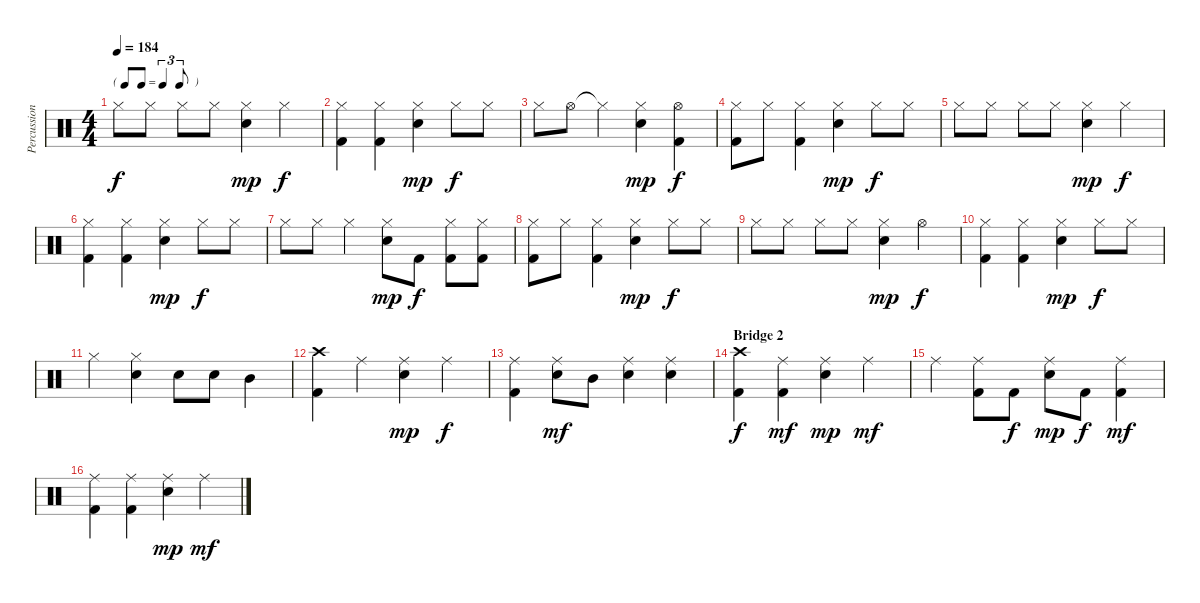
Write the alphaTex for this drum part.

\track ("Percussion" "Percussion") {instrument percussion}
\staff {score}
\articulation defaults
\ts (4 4)
\tf triplet8th
\tempo 184
\clef neutral
\ks c "Hi-Hat (closed)".8{dy f} "Hi-Hat (closed)".8 "Hi-Hat (closed)".8 "Hi-Hat (closed)".8
("Hi-Hat (closed)" "Electric Snare (hit)").4{dy mp} "Hi-Hat (closed)".4{dy f} |
("Hi-Hat (closed)" "Kick (hit) 2").4 ("Hi-Hat (closed)" "Kick (hit) 2").4 ("Hi-Hat (closed)" "Electric Snare (hit)").4{dy mp} "Hi-Hat (closed)".8{dy f} "Hi-Hat (closed)".8 |
"Hi-Hat (closed)".8 "Hi-Hat (open)".8 "Hi-Hat (closed)"{t}.4 ("Hi-Hat (closed)" "Electric Snare (hit)").4{dy mp} ("Hi-Hat (open)" "Kick (hit) 2").4{dy f} |
("Hi-Hat (closed)" "Kick (hit) 2").8 "Hi-Hat (closed)".8 ("Hi-Hat (closed)" "Kick (hit) 2").4 ("Hi-Hat (closed)" "Electric Snare (hit)").4{dy mp} "Hi-Hat (closed)".8{dy f} "Hi-Hat (closed)".8 |
"Hi-Hat (closed)".8 "Hi-Hat (closed)".8 "Hi-Hat (closed)".8 "Hi-Hat (closed)".8 ("Hi-Hat (closed)" "Electric Snare (hit)").4{dy mp} "Hi-Hat (closed)".4{dy f} |
("Hi-Hat (closed)" "Kick (hit) 2").4 ("Hi-Hat (closed)" "Kick (hit) 2").4 ("Hi-Hat (closed)" "Electric Snare (hit)").4{dy mp} "Hi-Hat (closed)".8{dy f} "Hi-Hat (closed)".8 |
"Hi-Hat (closed)".8 "Hi-Hat (closed)".8 "Hi-Hat (closed)".4 ("Hi-Hat (closed)" "Electric Snare (hit)").8{dy mp} "Kick (hit) 2".8{dy f} ("Hi-Hat (closed)" "Kick (hit) 2").8 ("Hi-Hat (closed)" "Kick (hit) 2").8 |
("Hi-Hat (closed)" "Kick (hit) 2").8 "Hi-Hat (closed)".8 ("Hi-Hat (closed)" "Kick (hit) 2").4 ("Hi-Hat (closed)" "Electric Snare (hit)").4{dy mp} "Hi-Hat (closed)".8{dy f} "Hi-Hat (closed)".8 |
"Hi-Hat (closed)".8 "Hi-Hat (closed)".8 "Hi-Hat (closed)".8 "Hi-Hat (closed)".8 ("Hi-Hat (closed)" "Electric Snare (hit)").4{dy mp} "Hi-Hat (open)".4{dy f} |
("Hi-Hat (closed)" "Kick (hit) 2").4 ("Hi-Hat (closed)" "Kick (hit) 2").4 ("Hi-Hat (closed)" "Electric Snare (hit)").4{dy mp} "Hi-Hat (closed)".8{dy f} "Hi-Hat (closed)".8 |
"Hi-Hat (closed)".4 ("Hi-Hat (closed)" "Electric Snare (hit)").4 "Electric Snare (hit)".8 "Electric Snare (hit)".8 "Mid Tom (hit)".4 |
("Crash high (hit)" "Kick (hit) 2").4 "Ride (middle)".4 ("Ride (middle)" "Electric Snare (hit)").4{dy mp} "Ride (middle)".4{dy f} |
("Ride (middle)" "Kick (hit) 2").4 ("Ride (middle)" "Electric Snare (hit)").8{dy mf} "Mid Tom (hit)".8 ("Ride (middle)" "Electric Snare (hit)").4 ("Ride (middle)" "Electric Snare (hit)").4 |
\section ("" "Bridge 2")
("Crash high (hit)" "Kick (hit) 2").4{dy f} ("Ride (middle)" "Kick (hit) 2").4{dy mf} ("Ride (middle)" "Electric Snare (hit)").4{dy mp} "Ride (middle)".4{dy mf} |
"Ride (middle)".4 ("Ride (middle)" "Kick (hit) 2").8 "Kick (hit) 2".8{dy f} ("Ride (middle)" "Electric Snare (hit)").8{dy mp} "Kick (hit) 2".8{dy f} ("Ride (middle)" "Kick (hit) 2").4{dy mf} |
("Ride (middle)" "Kick (hit) 2").4 ("Ride (middle)" "Kick (hit) 2").4 ("Ride (middle)" "Electric Snare (hit)").4{dy mp} "Ride (middle)".4{dy mf}
